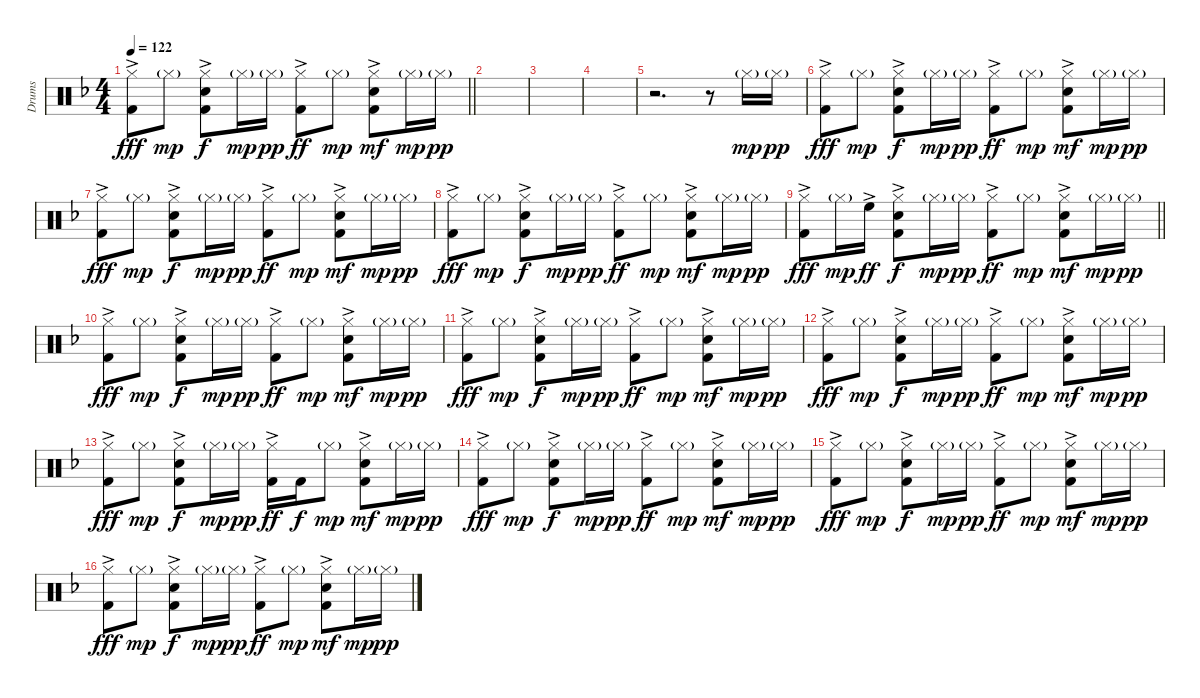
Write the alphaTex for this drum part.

\track ("Drums" "Drums") {instrument percussion}
\staff {score}
\articulation defaults
\ts (4 4)
\tempo 122
\clef neutral
\barLineRight lightlight
\ks f
("Kick (hit) 2"{ac} "Hi-Hat (closed)").8{dy fff} "Hi-Hat (closed)"{g}.8{dy mp} ("Kick (hit) 2" "Snare (hit) 2"{ac} "Hi-Hat (closed)").8{dy f} "Hi-Hat (closed)"{g}.16{dy mp} "Hi-Hat (closed)"{g}.16{dy pp} ("Kick (hit) 2"{ac} "Hi-Hat (closed)").8{dy ff} "Hi-Hat (closed)"{g}.8{dy mp} ("Kick (hit) 2" "Snare (hit) 2"{ac} "Hi-Hat (closed)").8{dy mf} "Hi-Hat (closed)"{g}.16{dy mp} "Hi-Hat (closed)"{g}.16{dy pp} |
|
|
|
r.2{d} r.8 "Hi-Hat (closed)"{g}.16{dy mp} "Hi-Hat (closed)"{g}.16{dy pp} |
("Kick (hit) 2"{ac} "Hi-Hat (closed)").8{dy fff} "Hi-Hat (closed)"{g}.8{dy mp} ("Kick (hit) 2" "Snare (hit) 2"{ac} "Hi-Hat (closed)").8{dy f} "Hi-Hat (closed)"{g}.16{dy mp} "Hi-Hat (closed)"{g}.16{dy pp} ("Kick (hit) 2"{ac} "Hi-Hat (closed)").8{dy ff} "Hi-Hat (closed)"{g}.8{dy mp} ("Kick (hit) 2" "Snare (hit) 2"{ac} "Hi-Hat (closed)").8{dy mf} "Hi-Hat (closed)"{g}.16{dy mp} "Hi-Hat (closed)"{g}.16{dy pp} |
("Kick (hit) 2"{ac} "Hi-Hat (closed)").8{dy fff} "Hi-Hat (closed)"{g}.8{dy mp} ("Kick (hit) 2" "Snare (hit) 2"{ac} "Hi-Hat (closed)").8{dy f} "Hi-Hat (closed)"{g}.16{dy mp} "Hi-Hat (closed)"{g}.16{dy pp} ("Kick (hit) 2"{ac} "Hi-Hat (closed)").8{dy ff} "Hi-Hat (closed)"{g}.8{dy mp} ("Kick (hit) 2" "Snare (hit) 2"{ac} "Hi-Hat (closed)").8{dy mf} "Hi-Hat (closed)"{g}.16{dy mp} "Hi-Hat (closed)"{g}.16{dy pp} |
("Kick (hit) 2"{ac} "Hi-Hat (closed)").8{dy fff} "Hi-Hat (closed)"{g}.8{dy mp} ("Kick (hit) 2" "Snare (hit) 2"{ac} "Hi-Hat (closed)").8{dy f} "Hi-Hat (closed)"{g}.16{dy mp} "Hi-Hat (closed)"{g}.16{dy pp} ("Kick (hit) 2"{ac} "Hi-Hat (closed)").8{dy ff} "Hi-Hat (closed)"{g}.8{dy mp} ("Kick (hit) 2" "Snare (hit) 2"{ac} "Hi-Hat (closed)").8{dy mf} "Hi-Hat (closed)"{g}.16{dy mp} "Hi-Hat (closed)"{g}.16{dy pp} |
\barLineRight lightlight
("Kick (hit) 2"{ac} "Hi-Hat (closed)").8{dy fff} "Hi-Hat (closed)"{g}.16{dy mp} "High Floor Tom (hit)"{ac}.16{dy ff} ("Kick (hit) 2" "Snare (hit) 2"{ac} "Hi-Hat (closed)").8{dy f} "Hi-Hat (closed)"{g}.16{dy mp} "Hi-Hat (closed)"{g}.16{dy pp} ("Kick (hit) 2"{ac} "Hi-Hat (closed)").8{dy ff} "Hi-Hat (closed)"{g}.8{dy mp} ("Kick (hit) 2" "Snare (hit) 2"{ac} "Hi-Hat (closed)").8{dy mf} "Hi-Hat (closed)"{g}.16{dy mp} "Hi-Hat (closed)"{g}.16{dy pp} |
("Kick (hit) 2"{ac} "Hi-Hat (closed)").8{dy fff} "Hi-Hat (closed)"{g}.8{dy mp} ("Kick (hit) 2" "Snare (hit) 2"{ac} "Hi-Hat (closed)").8{dy f} "Hi-Hat (closed)"{g}.16{dy mp} "Hi-Hat (closed)"{g}.16{dy pp} ("Kick (hit) 2"{ac} "Hi-Hat (closed)").8{dy ff} "Hi-Hat (closed)"{g}.8{dy mp} ("Kick (hit) 2" "Snare (hit) 2"{ac} "Hi-Hat (closed)").8{dy mf} "Hi-Hat (closed)"{g}.16{dy mp} "Hi-Hat (closed)"{g}.16{dy pp} |
("Kick (hit) 2"{ac} "Hi-Hat (closed)").8{dy fff} "Hi-Hat (closed)"{g}.8{dy mp} ("Kick (hit) 2" "Snare (hit) 2"{ac} "Hi-Hat (closed)").8{dy f} "Hi-Hat (closed)"{g}.16{dy mp} "Hi-Hat (closed)"{g}.16{dy pp} ("Kick (hit) 2"{ac} "Hi-Hat (closed)").8{dy ff} "Hi-Hat (closed)"{g}.8{dy mp} ("Kick (hit) 2" "Snare (hit) 2"{ac} "Hi-Hat (closed)").8{dy mf} "Hi-Hat (closed)"{g}.16{dy mp} "Hi-Hat (closed)"{g}.16{dy pp} |
("Kick (hit) 2"{ac} "Hi-Hat (closed)").8{dy fff} "Hi-Hat (closed)"{g}.8{dy mp} ("Kick (hit) 2" "Snare (hit) 2"{ac} "Hi-Hat (closed)").8{dy f} "Hi-Hat (closed)"{g}.16{dy mp} "Hi-Hat (closed)"{g}.16{dy pp} ("Kick (hit) 2"{ac} "Hi-Hat (closed)").8{dy ff} "Hi-Hat (closed)"{g}.8{dy mp} ("Kick (hit) 2" "Snare (hit) 2"{ac} "Hi-Hat (closed)").8{dy mf} "Hi-Hat (closed)"{g}.16{dy mp} "Hi-Hat (closed)"{g}.16{dy pp} |
("Kick (hit) 2"{ac} "Hi-Hat (closed)").8{dy fff} "Hi-Hat (closed)"{g}.8{dy mp} ("Kick (hit) 2" "Snare (hit) 2"{ac} "Hi-Hat (closed)").8{dy f} "Hi-Hat (closed)"{g}.16{dy mp} "Hi-Hat (closed)"{g}.16{dy pp} ("Kick (hit) 2"{ac} "Hi-Hat (closed)").16{dy ff} "Kick (hit) 2".16{dy f} "Hi-Hat (closed)"{g}.8{dy mp} ("Kick (hit) 2" "Snare (hit) 2"{ac} "Hi-Hat (closed)").8{dy mf} "Hi-Hat (closed)"{g}.16{dy mp} "Hi-Hat (closed)"{g}.16{dy pp} |
("Kick (hit) 2"{ac} "Hi-Hat (closed)").8{dy fff} "Hi-Hat (closed)"{g}.8{dy mp} ("Kick (hit) 2" "Snare (hit) 2"{ac} "Hi-Hat (closed)").8{dy f} "Hi-Hat (closed)"{g}.16{dy mp} "Hi-Hat (closed)"{g}.16{dy pp} ("Kick (hit) 2"{ac} "Hi-Hat (closed)").8{dy ff} "Hi-Hat (closed)"{g}.8{dy mp} ("Kick (hit) 2" "Snare (hit) 2"{ac} "Hi-Hat (closed)").8{dy mf} "Hi-Hat (closed)"{g}.16{dy mp} "Hi-Hat (closed)"{g}.16{dy pp} |
("Kick (hit) 2"{ac} "Hi-Hat (closed)").8{dy fff} "Hi-Hat (closed)"{g}.8{dy mp} ("Kick (hit) 2" "Snare (hit) 2"{ac} "Hi-Hat (closed)").8{dy f} "Hi-Hat (closed)"{g}.16{dy mp} "Hi-Hat (closed)"{g}.16{dy pp} ("Kick (hit) 2"{ac} "Hi-Hat (closed)").8{dy ff} "Hi-Hat (closed)"{g}.8{dy mp} ("Kick (hit) 2" "Snare (hit) 2"{ac} "Hi-Hat (closed)").8{dy mf} "Hi-Hat (closed)"{g}.16{dy mp} "Hi-Hat (closed)"{g}.16{dy pp} |
("Kick (hit) 2"{ac} "Hi-Hat (closed)").8{dy fff} "Hi-Hat (closed)"{g}.8{dy mp} ("Kick (hit) 2" "Snare (hit) 2"{ac} "Hi-Hat (closed)").8{dy f} "Hi-Hat (closed)"{g}.16{dy mp} "Hi-Hat (closed)"{g}.16{dy pp} ("Kick (hit) 2"{ac} "Hi-Hat (closed)").8{dy ff} "Hi-Hat (closed)"{g}.8{dy mp} ("Kick (hit) 2" "Snare (hit) 2"{ac} "Hi-Hat (closed)").8{dy mf} "Hi-Hat (closed)"{g}.16{dy mp} "Hi-Hat (closed)"{g}.16{dy pp}
